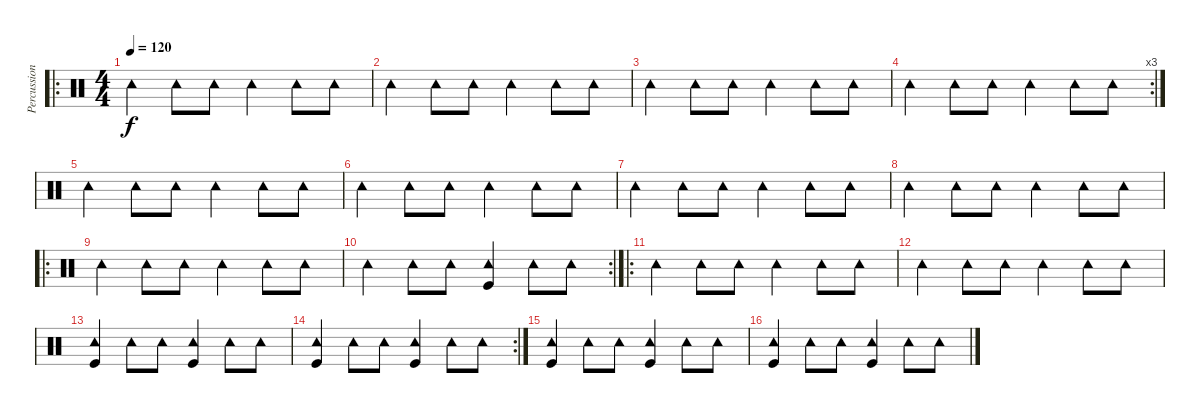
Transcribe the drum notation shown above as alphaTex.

\track ("Percussion" "Percussion") {instrument percussion}
\staff {score}
\articulation defaults
\ro
\ts (4 4)
\tempo 120
\clef neutral
\ks c "Tambourine (hit)".4{dy f} "Tambourine (hit)".8 "Tambourine (hit)".8 "Tambourine (hit)".4 "Tambourine (hit)".8 "Tambourine (hit)".8
|
"Tambourine (hit)".4 "Tambourine (hit)".8 "Tambourine (hit)".8 "Tambourine (hit)".4 "Tambourine (hit)".8 "Tambourine (hit)".8 |
"Tambourine (hit)".4 "Tambourine (hit)".8 "Tambourine (hit)".8 "Tambourine (hit)".4 "Tambourine (hit)".8 "Tambourine (hit)".8 |
\rc 3 "Tambourine (hit)".4 "Tambourine (hit)".8 "Tambourine (hit)".8 "Tambourine (hit)".4 "Tambourine (hit)".8 "Tambourine (hit)".8
|
"Tambourine (hit)".4 "Tambourine (hit)".8 "Tambourine (hit)".8 "Tambourine (hit)".4 "Tambourine (hit)".8 "Tambourine (hit)".8 |
"Tambourine (hit)".4 "Tambourine (hit)".8 "Tambourine (hit)".8 "Tambourine (hit)".4 "Tambourine (hit)".8 "Tambourine (hit)".8 |
"Tambourine (hit)".4 "Tambourine (hit)".8 "Tambourine (hit)".8 "Tambourine (hit)".4 "Tambourine (hit)".8 "Tambourine (hit)".8 |
"Tambourine (hit)".4 "Tambourine (hit)".8 "Tambourine (hit)".8 "Tambourine (hit)".4 "Tambourine (hit)".8 "Tambourine (hit)".8 |
\ro "Tambourine (hit)".4 "Tambourine (hit)".8 "Tambourine (hit)".8 "Tambourine (hit)".4 "Tambourine (hit)".8 "Tambourine (hit)".8
|
\rc 2 "Tambourine (hit)".4 "Tambourine (hit)".8 "Tambourine (hit)".8
("Tambourine (hit)" "Kick (hit)").4 "Tambourine (hit)".8 "Tambourine (hit)".8 |
\ro "Tambourine (hit)".4 "Tambourine (hit)".8 "Tambourine (hit)".8 "Tambourine (hit)".4 "Tambourine (hit)".8 "Tambourine (hit)".8
|
"Tambourine (hit)".4 "Tambourine (hit)".8 "Tambourine (hit)".8 "Tambourine (hit)".4 "Tambourine (hit)".8 "Tambourine (hit)".8 |
("Tambourine (hit)" "Kick (hit)").4 "Tambourine (hit)".8 "Tambourine (hit)".8 ("Tambourine (hit)" "Kick (hit)").4 "Tambourine (hit)".8 "Tambourine (hit)".8 |
\rc 2
("Tambourine (hit)" "Kick (hit)").4 "Tambourine (hit)".8 "Tambourine (hit)".8 ("Tambourine (hit)" "Kick (hit)").4 "Tambourine (hit)".8 "Tambourine (hit)".8 |
("Tambourine (hit)" "Kick (hit)").4 "Tambourine (hit)".8 "Tambourine (hit)".8 ("Tambourine (hit)" "Kick (hit)").4 "Tambourine (hit)".8 "Tambourine (hit)".8 |
("Tambourine (hit)" "Kick (hit)").4 "Tambourine (hit)".8 "Tambourine (hit)".8 ("Tambourine (hit)" "Kick (hit)").4 "Tambourine (hit)".8 "Tambourine (hit)".8
